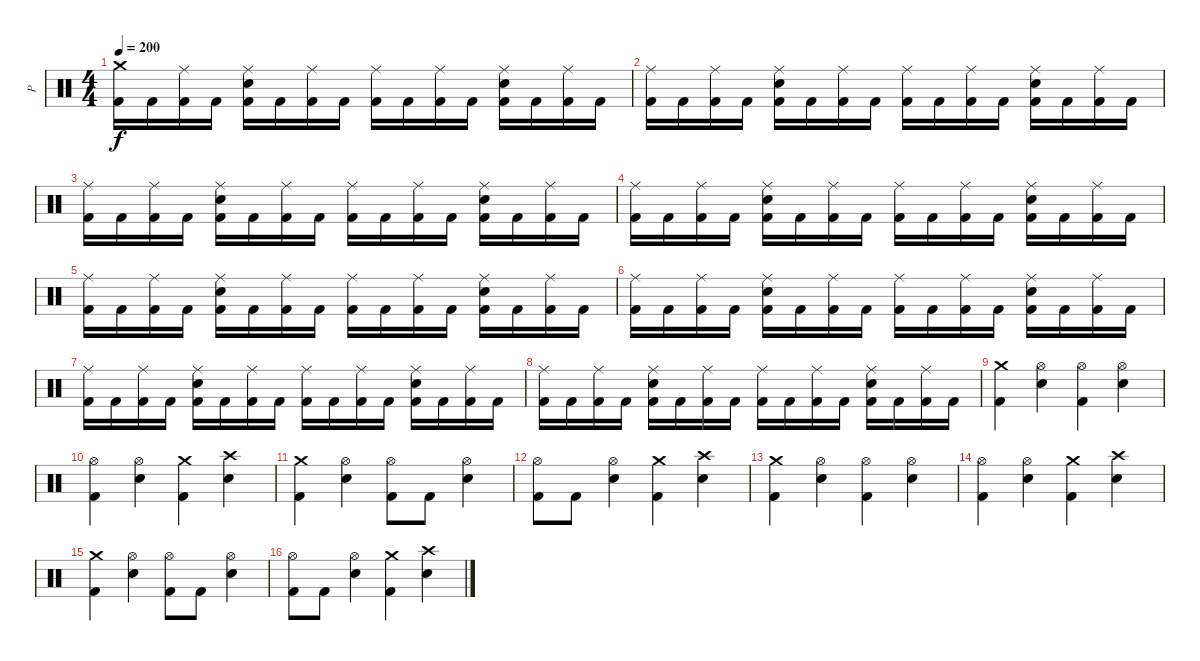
\track ("P" "P") {instrument percussion}
\staff {score}
\articulation defaults
\ts (4 4)
\tempo 200
\clef neutral
\ks c
("Crash medium (hit)" "Kick (hit) 2").16{dy f} "Kick (hit) 2".16 ("Ride (middle)" "Kick (hit) 2").16 "Kick (hit) 2".16 ("Ride (middle)" "Electric Snare (hit)" "Kick (hit) 2").16 "Kick (hit) 2".16 ("Ride (middle)" "Kick (hit) 2").16 "Kick (hit) 2".16 ("Ride (middle)" "Kick (hit) 2").16 "Kick (hit) 2".16 ("Ride (middle)" "Kick (hit) 2").16 "Kick (hit) 2".16 ("Ride (middle)" "Electric Snare (hit)" "Kick (hit) 2").16 "Kick (hit) 2".16 ("Ride (middle)" "Kick (hit) 2").16 "Kick (hit) 2".16 |
("Ride (middle)" "Kick (hit) 2").16 "Kick (hit) 2".16 ("Ride (middle)" "Kick (hit) 2").16 "Kick (hit) 2".16 ("Ride (middle)" "Electric Snare (hit)" "Kick (hit) 2").16 "Kick (hit) 2".16 ("Ride (middle)" "Kick (hit) 2").16 "Kick (hit) 2".16 ("Ride (middle)" "Kick (hit) 2").16 "Kick (hit) 2".16 ("Ride (middle)" "Kick (hit) 2").16 "Kick (hit) 2".16 ("Ride (middle)" "Electric Snare (hit)" "Kick (hit) 2").16 "Kick (hit) 2".16 ("Ride (middle)" "Kick (hit) 2").16 "Kick (hit) 2".16 |
("Ride (middle)" "Kick (hit) 2").16 "Kick (hit) 2".16 ("Ride (middle)" "Kick (hit) 2").16 "Kick (hit) 2".16 ("Ride (middle)" "Electric Snare (hit)" "Kick (hit) 2").16 "Kick (hit) 2".16 ("Ride (middle)" "Kick (hit) 2").16 "Kick (hit) 2".16 ("Ride (middle)" "Kick (hit) 2").16 "Kick (hit) 2".16 ("Ride (middle)" "Kick (hit) 2").16 "Kick (hit) 2".16 ("Ride (middle)" "Electric Snare (hit)" "Kick (hit) 2").16 "Kick (hit) 2".16 ("Ride (middle)" "Kick (hit) 2").16 "Kick (hit) 2".16 |
("Ride (middle)" "Kick (hit) 2").16 "Kick (hit) 2".16 ("Ride (middle)" "Kick (hit) 2").16 "Kick (hit) 2".16 ("Ride (middle)" "Electric Snare (hit)" "Kick (hit) 2").16 "Kick (hit) 2".16 ("Ride (middle)" "Kick (hit) 2").16 "Kick (hit) 2".16 ("Ride (middle)" "Kick (hit) 2").16 "Kick (hit) 2".16 ("Ride (middle)" "Kick (hit) 2").16 "Kick (hit) 2".16 ("Ride (middle)" "Electric Snare (hit)" "Kick (hit) 2").16 "Kick (hit) 2".16 ("Ride (middle)" "Kick (hit) 2").16 "Kick (hit) 2".16 |
("Ride (middle)" "Kick (hit) 2").16 "Kick (hit) 2".16 ("Ride (middle)" "Kick (hit) 2").16 "Kick (hit) 2".16 ("Ride (middle)" "Electric Snare (hit)" "Kick (hit) 2").16 "Kick (hit) 2".16 ("Ride (middle)" "Kick (hit) 2").16 "Kick (hit) 2".16 ("Ride (middle)" "Kick (hit) 2").16 "Kick (hit) 2".16 ("Ride (middle)" "Kick (hit) 2").16 "Kick (hit) 2".16 ("Ride (middle)" "Electric Snare (hit)" "Kick (hit) 2").16 "Kick (hit) 2".16 ("Ride (middle)" "Kick (hit) 2").16 "Kick (hit) 2".16 |
("Ride (middle)" "Kick (hit) 2").16 "Kick (hit) 2".16 ("Ride (middle)" "Kick (hit) 2").16 "Kick (hit) 2".16 ("Ride (middle)" "Electric Snare (hit)" "Kick (hit) 2").16 "Kick (hit) 2".16 ("Ride (middle)" "Kick (hit) 2").16 "Kick (hit) 2".16 ("Ride (middle)" "Kick (hit) 2").16 "Kick (hit) 2".16 ("Ride (middle)" "Kick (hit) 2").16 "Kick (hit) 2".16 ("Ride (middle)" "Electric Snare (hit)" "Kick (hit) 2").16 "Kick (hit) 2".16 ("Ride (middle)" "Kick (hit) 2").16 "Kick (hit) 2".16 |
("Ride (middle)" "Kick (hit) 2").16 "Kick (hit) 2".16 ("Ride (middle)" "Kick (hit) 2").16 "Kick (hit) 2".16 ("Ride (middle)" "Electric Snare (hit)" "Kick (hit) 2").16 "Kick (hit) 2".16 ("Ride (middle)" "Kick (hit) 2").16 "Kick (hit) 2".16 ("Ride (middle)" "Kick (hit) 2").16 "Kick (hit) 2".16 ("Ride (middle)" "Kick (hit) 2").16 "Kick (hit) 2".16 ("Ride (middle)" "Electric Snare (hit)" "Kick (hit) 2").16 "Kick (hit) 2".16 ("Ride (middle)" "Kick (hit) 2").16 "Kick (hit) 2".16 |
("Ride (middle)" "Kick (hit) 2").16 "Kick (hit) 2".16 ("Ride (middle)" "Kick (hit) 2").16 "Kick (hit) 2".16 ("Ride (middle)" "Electric Snare (hit)" "Kick (hit) 2").16 "Kick (hit) 2".16 ("Ride (middle)" "Kick (hit) 2").16 "Kick (hit) 2".16 ("Ride (middle)" "Kick (hit) 2").16 "Kick (hit) 2".16 ("Ride (middle)" "Kick (hit) 2").16 "Kick (hit) 2".16 ("Ride (middle)" "Electric Snare (hit)" "Kick (hit) 2").16 "Kick (hit) 2".16 ("Ride (middle)" "Kick (hit) 2").16 "Kick (hit) 2".16 |
("Crash medium (hit)" "Kick (hit) 2").4 ("Hi-Hat (open)" "Electric Snare (hit)").4 ("Hi-Hat (open)" "Kick (hit) 2").4 ("Hi-Hat (open)" "Electric Snare (hit)").4 |
("Hi-Hat (open)" "Kick (hit) 2").4 ("Hi-Hat (open)" "Electric Snare (hit)").4 ("Crash medium (hit)" "Kick (hit) 2").4 ("Crash high (hit)" "Electric Snare (hit)").4 |
("Crash medium (hit)" "Kick (hit) 2").4 ("Hi-Hat (open)" "Electric Snare (hit)").4 ("Hi-Hat (open)" "Kick (hit) 2").8 "Kick (hit) 2".8 ("Hi-Hat (open)" "Electric Snare (hit)").4 |
("Hi-Hat (open)" "Kick (hit) 2").8 "Kick (hit) 2".8 ("Hi-Hat (open)" "Electric Snare (hit)").4 ("Crash medium (hit)" "Kick (hit) 2").4 ("Crash high (hit)" "Electric Snare (hit)").4 |
("Crash medium (hit)" "Kick (hit) 2").4 ("Hi-Hat (open)" "Electric Snare (hit)").4 ("Hi-Hat (open)" "Kick (hit) 2").4 ("Hi-Hat (open)" "Electric Snare (hit)").4 |
("Hi-Hat (open)" "Kick (hit) 2").4 ("Hi-Hat (open)" "Electric Snare (hit)").4 ("Crash medium (hit)" "Kick (hit) 2").4 ("Crash high (hit)" "Electric Snare (hit)").4 |
("Crash medium (hit)" "Kick (hit) 2").4 ("Hi-Hat (open)" "Electric Snare (hit)").4 ("Hi-Hat (open)" "Kick (hit) 2").8 "Kick (hit) 2".8 ("Hi-Hat (open)" "Electric Snare (hit)").4 |
("Hi-Hat (open)" "Kick (hit) 2").8 "Kick (hit) 2".8 ("Hi-Hat (open)" "Electric Snare (hit)").4 ("Crash medium (hit)" "Kick (hit) 2").4 ("Crash high (hit)" "Electric Snare (hit)").4
